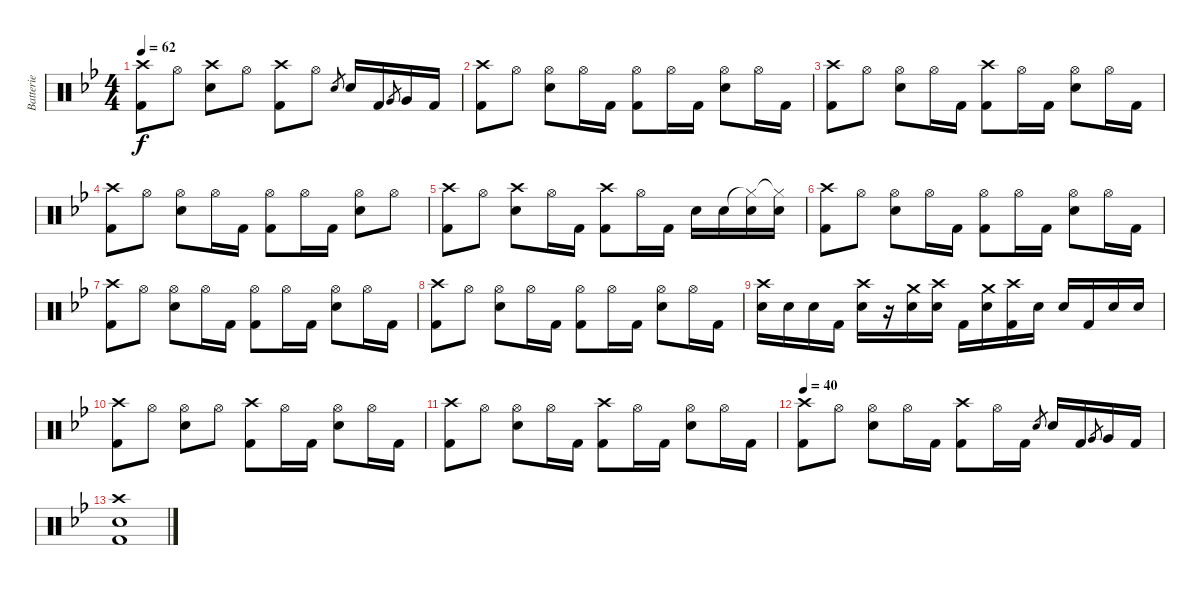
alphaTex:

\track ("Batterie" "Batterie") {instrument percussion}
\staff {score}
\articulation defaults
\ts (4 4)
\tempo 62
\clef neutral
\ks bb
("Crash high (hit)" "Kick (hit) 2").8{dy f} "Hi-Hat (open)".8 ("Crash high (hit)" "Snare (hit) 2").8 "Hi-Hat (open)".8 ("Crash high (hit)" "Kick (hit) 2").8 "Hi-Hat (open)".8 "Snare (hit) 2".8{gr} "Snare (hit) 2".16 "Kick (hit) 2".16 "Very Low Tom (hit)".8{gr} "Very Low Tom (hit)".16 "Kick (hit) 2".16 |
("Crash high (hit)" "Kick (hit) 2").8 "Hi-Hat (open)".8 ("Hi-Hat (open)" "Snare (hit) 2").8 "Hi-Hat (open)".16 "Kick (hit) 2".16 ("Hi-Hat (open)" "Kick (hit) 2").8 "Hi-Hat (open)".16 "Kick (hit) 2".16 ("Hi-Hat (open)" "Snare (hit) 2").8 "Hi-Hat (open)".16 "Kick (hit) 2".16 |
("Crash high (hit)" "Kick (hit) 2").8 "Hi-Hat (open)".8 ("Hi-Hat (open)" "Snare (hit) 2").8 "Hi-Hat (open)".16 "Kick (hit) 2".16 ("Crash high (hit)" "Kick (hit) 2").8 "Hi-Hat (open)".16 "Kick (hit) 2".16 ("Hi-Hat (open)" "Snare (hit) 2").8 "Hi-Hat (open)".16 "Kick (hit) 2".16 |
("Crash high (hit)" "Kick (hit) 2").8 "Hi-Hat (open)".8 ("Hi-Hat (open)" "Snare (hit) 2").8 "Hi-Hat (open)".16 "Kick (hit) 2".16 ("Hi-Hat (open)" "Kick (hit) 2").8 "Hi-Hat (open)".16 "Kick (hit) 2".16 ("Hi-Hat (open)" "Snare (hit) 2").8 "Hi-Hat (open)".8 |
("Crash high (hit)" "Kick (hit) 2").8 "Hi-Hat (open)".8 ("Crash high (hit)" "Snare (hit) 2").8 "Hi-Hat (open)".16 "Kick (hit) 2".16 ("Crash high (hit)" "Kick (hit) 2").8 "Hi-Hat (open)".16 "Kick (hit) 2".16 "Snare (hit) 2".16 "Snare (hit) 2".16 ("Hi-Hat (closed)"{t} "Snare (hit) 2").16 ("Hi-Hat (closed)"{t} "Snare (hit) 2").16 |
("Crash high (hit)" "Kick (hit) 2").8 "Hi-Hat (open)".8 ("Hi-Hat (open)" "Snare (hit) 2").8 "Hi-Hat (open)".16 "Kick (hit) 2".16 ("Hi-Hat (open)" "Kick (hit) 2").8 "Hi-Hat (open)".16 "Kick (hit) 2".16 ("Hi-Hat (open)" "Snare (hit) 2").8 "Hi-Hat (open)".16 "Kick (hit) 2".16 |
("Crash high (hit)" "Kick (hit) 2").8 "Hi-Hat (open)".8 ("Hi-Hat (open)" "Snare (hit) 2").8 "Hi-Hat (open)".16 "Kick (hit) 2".16 ("Hi-Hat (open)" "Kick (hit) 2").8 "Hi-Hat (open)".16 "Kick (hit) 2".16 ("Hi-Hat (open)" "Snare (hit) 2").8 "Hi-Hat (open)".16 "Kick (hit) 2".16 |
("Crash high (hit)" "Kick (hit) 2").8 "Hi-Hat (open)".8 ("Hi-Hat (open)" "Snare (hit) 2").8 "Hi-Hat (open)".16 "Kick (hit) 2".16 ("Hi-Hat (open)" "Kick (hit) 2").8 "Hi-Hat (open)".16 "Kick (hit) 2".16 ("Hi-Hat (open)" "Snare (hit) 2").8 "Hi-Hat (open)".16 "Kick (hit) 2".16 |
("Crash high (hit)" "Snare (hit) 2").16 "Snare (hit) 2".16 "Snare (hit) 2".16 "Kick (hit) 2".16 ("Crash high (hit)" "Snare (hit) 2").16 r.16 ("Crash medium (hit)" "Snare (hit) 2").16 ("Crash high (hit)" "Snare (hit) 2").16 "Kick (hit) 2".16 ("Crash medium (hit)" "Snare (hit) 2").16 ("Crash high (hit)" "Kick (hit) 2").16 "Snare (hit) 2".16 "Snare (hit) 2".16 "Kick (hit) 2".16 "Snare (hit) 2".16 "Snare (hit) 2".16 |
("Crash high (hit)" "Kick (hit) 2").8 "Hi-Hat (open)".8 ("Hi-Hat (open)" "Snare (hit) 2").8 "Hi-Hat (open)".8 ("Crash high (hit)" "Kick (hit) 2").8 "Hi-Hat (open)".16 "Kick (hit) 2".16 ("Hi-Hat (open)" "Snare (hit) 2").8 "Hi-Hat (open)".16 "Kick (hit) 2".16 |
("Crash high (hit)" "Kick (hit) 2").8 "Hi-Hat (open)".8 ("Hi-Hat (open)" "Snare (hit) 2").8 "Hi-Hat (open)".16 "Kick (hit) 2".16 ("Crash high (hit)" "Kick (hit) 2").8 "Hi-Hat (open)".16 "Kick (hit) 2".16 ("Hi-Hat (open)" "Snare (hit) 2").8 "Hi-Hat (open)".16 "Kick (hit) 2".16 |
\tempo 40
("Crash high (hit)" "Kick (hit) 2").8 "Hi-Hat (open)".8 ("Hi-Hat (open)" "Snare (hit) 2").8 "Hi-Hat (open)".16 "Kick (hit) 2".16 ("Crash high (hit)" "Kick (hit) 2").8 "Hi-Hat (open)".16 "Kick (hit) 2".16 "Snare (hit) 2".8{gr} "Snare (hit) 2".16 "Kick (hit) 2".16 "Very Low Tom (hit)".8{gr} "Very Low Tom (hit)".16 "Kick (hit) 2".16 |
("Crash high (hit)" "Snare (hit) 2" "Kick (hit) 2").1
